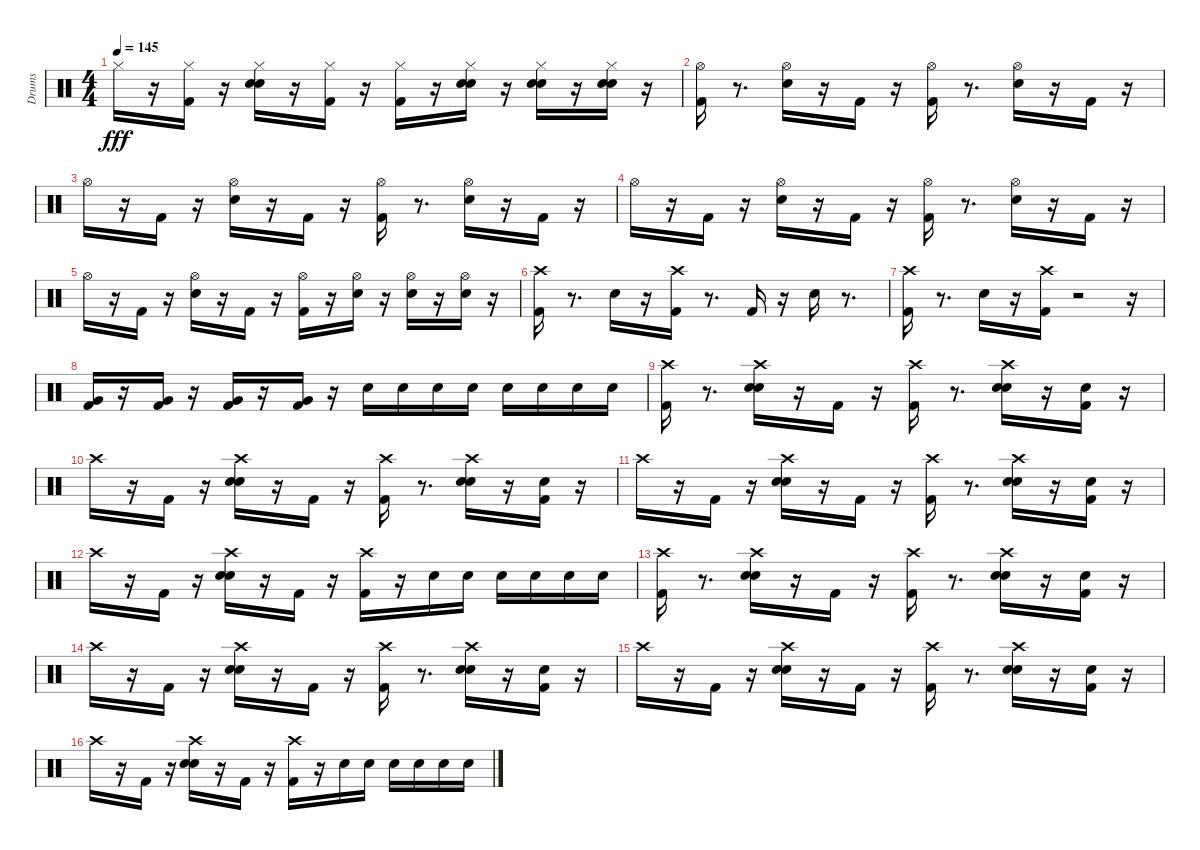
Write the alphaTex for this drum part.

\track ("Drums" "Drums") {instrument percussion}
\staff {score}
\articulation defaults
\ts (4 4)
\tempo 145
\clef neutral
\ks c "Hi-Hat (closed)".16{dy fff}
r.16 ("Kick (hit) 2" "Hi-Hat (closed)").16 r.16 ("Electric Snare (hit)" "Hand Clap (hit)" "Hi-Hat (closed)").16 r.16 ("Kick (hit) 2" "Hi-Hat (closed)").16 r.16 ("Kick (hit) 2" "Hi-Hat (closed)").16 r.16 ("Electric Snare (hit)" "Hand Clap (hit)" "Hi-Hat (closed)").16 r.16 ("Electric Snare (hit)" "Hand Clap (hit)" "Hi-Hat (closed)").16 r.16 ("Electric Snare (hit)" "Hand Clap (hit)" "Hi-Hat (closed)").16 r.16 |
("Kick (hit) 2" "Hi-Hat (open)").16 r.8{d} ("Hi-Hat (open)" "Electric Snare (hit)").16 r.16 "Kick (hit) 2".16 r.16 ("Kick (hit) 2" "Hi-Hat (open)").16 r.8{d} ("Electric Snare (hit)" "Hi-Hat (open)").16 r.16 "Kick (hit) 2".16 r.16 |
"Hi-Hat (open)".16 r.16 "Kick (hit) 2".16 r.16 ("Electric Snare (hit)" "Hi-Hat (open)").16 r.16 "Kick (hit) 2".16 r.16 ("Kick (hit) 2" "Hi-Hat (open)").16 r.8{d} ("Electric Snare (hit)" "Hi-Hat (open)").16 r.16 "Kick (hit) 2".16 r.16 |
"Hi-Hat (open)".16 r.16 "Kick (hit) 2".16 r.16 ("Electric Snare (hit)" "Hi-Hat (open)").16 r.16 "Kick (hit) 2".16 r.16 ("Kick (hit) 2" "Hi-Hat (open)").16 r.8{d} ("Electric Snare (hit)" "Hi-Hat (open)").16 r.16 "Kick (hit) 2".16 r.16 |
"Hi-Hat (open)".16 r.16 "Kick (hit) 2".16 r.16 ("Electric Snare (hit)" "Hi-Hat (open)").16 r.16 "Kick (hit) 2".16 r.16 ("Kick (hit) 2" "Hi-Hat (open)").16 r.16 ("Electric Snare (hit)" "Hi-Hat (open)").16 r.16 ("Electric Snare (hit)" "Hi-Hat (open)").16 r.16 ("Electric Snare (hit)" "Hi-Hat (open)").16 r.16 |
("Crash high (hit)" "Kick (hit) 2").16 r.8{d} "Electric Snare (hit)".16 r.16 ("Crash high (hit)" "Kick (hit) 2").16 r.8{d} "Kick (hit) 2".16 r.16 "Electric Snare (hit)".16 r.8{d} |
("Crash high (hit)" "Kick (hit) 2").16 r.8{d} "Electric Snare (hit)".16 r.16 ("Crash high (hit)" "Kick (hit) 2").16 r.2 r.16 |
("Kick (hit) 2" "Very Low Tom (hit)").16 r.16 ("Kick (hit) 2" "Very Low Tom (hit)").16 r.16 ("Kick (hit) 2" "Very Low Tom (hit)").16 r.16 ("Kick (hit) 2" "Very Low Tom (hit)").16 r.16 "Electric Snare (hit)".16 "Electric Snare (hit)".16 "Electric Snare (hit)".16 "Electric Snare (hit)".16 "Electric Snare (hit)".16 "Electric Snare (hit)".16 "Electric Snare (hit)".16 "Electric Snare (hit)".16 |
("Kick (hit) 2" "Crash high (hit)").16 r.8{d} ("Crash high (hit)" "Hand Clap (hit)" "Electric Snare (hit)").16 r.16 "Kick (hit) 2".16 r.16 ("Crash high (hit)" "Kick (hit) 2").16 r.8{d} ("Crash high (hit)" "Hand Clap (hit)" "Electric Snare (hit)").16 r.16 ("Hand Clap (hit)" "Kick (hit) 2").16 r.16 |
"Crash high (hit)".16 r.16 "Kick (hit) 2".16 r.16 ("Crash high (hit)" "Hand Clap (hit)" "Electric Snare (hit)").16 r.16 "Kick (hit) 2".16 r.16 ("Crash high (hit)" "Kick (hit) 2").16 r.8{d} ("Crash high (hit)" "Hand Clap (hit)" "Electric Snare (hit)").16 r.16 ("Hand Clap (hit)" "Kick (hit) 2").16 r.16 |
"Crash high (hit)".16 r.16 "Kick (hit) 2".16 r.16 ("Crash high (hit)" "Hand Clap (hit)" "Electric Snare (hit)").16 r.16 "Kick (hit) 2".16 r.16 ("Crash high (hit)" "Kick (hit) 2").16 r.8{d} ("Crash high (hit)" "Hand Clap (hit)" "Electric Snare (hit)").16 r.16 ("Hand Clap (hit)" "Kick (hit) 2").16 r.16 |
"Crash high (hit)".16 r.16 "Kick (hit) 2".16 r.16 ("Crash high (hit)" "Electric Snare (hit)" "Hand Clap (hit)").16 r.16 "Kick (hit) 2".16 r.16 ("Crash high (hit)" "Kick (hit) 2").16 r.16 "Electric Snare (hit)".16 "Electric Snare (hit)".16 "Electric Snare (hit)".16 "Electric Snare (hit)".16 "Electric Snare (hit)".16 "Electric Snare (hit)".16 |
("Kick (hit) 2" "Crash high (hit)").16 r.8{d} ("Crash high (hit)" "Hand Clap (hit)" "Electric Snare (hit)").16 r.16 "Kick (hit) 2".16 r.16 ("Crash high (hit)" "Kick (hit) 2").16 r.8{d} ("Crash high (hit)" "Hand Clap (hit)" "Electric Snare (hit)").16 r.16 ("Hand Clap (hit)" "Kick (hit) 2").16 r.16 |
"Crash high (hit)".16 r.16 "Kick (hit) 2".16 r.16 ("Crash high (hit)" "Hand Clap (hit)" "Electric Snare (hit)").16 r.16 "Kick (hit) 2".16 r.16 ("Crash high (hit)" "Kick (hit) 2").16 r.8{d} ("Crash high (hit)" "Hand Clap (hit)" "Electric Snare (hit)").16 r.16 ("Hand Clap (hit)" "Kick (hit) 2").16 r.16 |
"Crash high (hit)".16 r.16 "Kick (hit) 2".16 r.16 ("Crash high (hit)" "Hand Clap (hit)" "Electric Snare (hit)").16 r.16 "Kick (hit) 2".16 r.16 ("Crash high (hit)" "Kick (hit) 2").16 r.8{d} ("Crash high (hit)" "Hand Clap (hit)" "Electric Snare (hit)").16 r.16 ("Hand Clap (hit)" "Kick (hit) 2").16 r.16 |
"Crash high (hit)".16 r.16 "Kick (hit) 2".16 r.16 ("Crash high (hit)" "Electric Snare (hit)" "Hand Clap (hit)").16 r.16 "Kick (hit) 2".16 r.16 ("Crash high (hit)" "Kick (hit) 2").16 r.16 "Electric Snare (hit)".16 "Electric Snare (hit)".16 "Electric Snare (hit)".16 "Electric Snare (hit)".16 "Electric Snare (hit)".16 "Electric Snare (hit)".16
